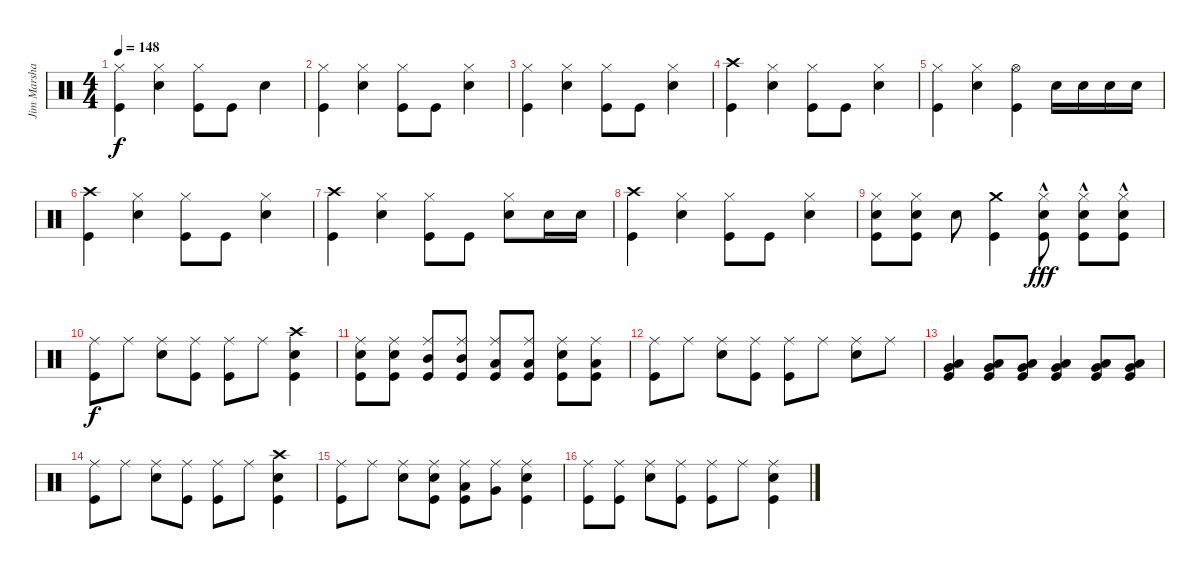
\track ("Jim Marshall Drums" "Jim Marsha") {instrument percussion}
\staff {score}
\articulation defaults
\ts (4 4)
\tempo 148
\clef neutral
\ks c
("Hi-Hat (closed)" "Kick (hit)").4{dy f} ("Hi-Hat (closed)" "Snare (hit) 2").4 ("Hi-Hat (closed)" "Kick (hit)").8 "Kick (hit)".8 "Snare (hit) 2".4 |
("Hi-Hat (closed)" "Kick (hit)").4 ("Hi-Hat (closed)" "Snare (hit) 2").4 ("Hi-Hat (closed)" "Kick (hit)").8 "Kick (hit)".8 ("Hi-Hat (closed)" "Snare (hit) 2").4 |
("Hi-Hat (closed)" "Kick (hit)").4 ("Hi-Hat (closed)" "Snare (hit) 2").4 ("Hi-Hat (closed)" "Kick (hit)").8 "Kick (hit)".8 ("Hi-Hat (closed)" "Snare (hit) 2").4 |
("Crash high (hit)" "Kick (hit)").4 ("Hi-Hat (closed)" "Snare (hit) 2").4 ("Hi-Hat (closed)" "Kick (hit)").8 "Kick (hit)".8 ("Hi-Hat (closed)" "Snare (hit) 2").4 |
("Hi-Hat (closed)" "Kick (hit)").4 ("Hi-Hat (closed)" "Snare (hit) 2").4 ("Hi-Hat (open)" "Kick (hit)").4 "Snare (hit) 2".16 "Snare (hit) 2".16 "Snare (hit) 2".16 "Snare (hit) 2".16 |
("Crash high (hit)" "Kick (hit)").4 ("Hi-Hat (closed)" "Snare (hit) 2").4 ("Hi-Hat (closed)" "Kick (hit)").8 "Kick (hit)".8 ("Hi-Hat (closed)" "Snare (hit) 2").4 |
("Crash high (hit)" "Kick (hit)").4 ("Hi-Hat (closed)" "Snare (hit) 2").4 ("Hi-Hat (closed)" "Kick (hit)").8 "Kick (hit)".8 ("Hi-Hat (closed)" "Snare (hit) 2").8 "Snare (hit) 2".16 "Snare (hit) 2".16 |
("Crash high (hit)" "Kick (hit)").4 ("Hi-Hat (closed)" "Snare (hit) 2").4 ("Hi-Hat (closed)" "Kick (hit)").8 "Kick (hit)".8 ("Hi-Hat (closed)" "Snare (hit) 2").4 |
("Hi-Hat (closed)" "Snare (hit) 2" "Kick (hit)").8 ("Hi-Hat (closed)" "Snare (hit) 2" "Kick (hit)").8 "Snare (hit) 2".8 ("Crash medium (hit)" "Kick (hit)").4 ("Hi-Hat (closed)"{hac} "Snare (hit) 2" "Kick (hit)").8{dy fff} ("Hi-Hat (closed)"{hac} "Snare (hit) 2" "Kick (hit)").8 ("Hi-Hat (closed)"{hac} "Snare (hit) 2" "Kick (hit)").8 |
("Ride (middle)" "Kick (hit)").8{dy f} "Ride (middle)".8 ("Ride (middle)" "Snare (hit) 2").8 ("Ride (middle)" "Kick (hit)").8 ("Ride (middle)" "Kick (hit)").8 "Ride (middle)".8 ("Crash high (hit)" "Snare (hit) 2" "Kick (hit)").4 |
("Ride (middle)" "Snare (hit) 2" "Kick (hit)").8 ("Ride (middle)" "Snare (hit) 2" "Kick (hit)").8 ("Ride (middle)" "Mid Tom (hit)" "Kick (hit)").8 ("Ride (middle)" "Mid Tom (hit)" "Kick (hit)").8 ("Ride (middle)" "Low Tom (hit)" "Kick (hit)").8 ("Ride (middle)" "Low Tom (hit)" "Kick (hit)").8 ("Ride (middle)" "Snare (hit) 2" "Kick (hit)").8 ("Ride (middle)" "Low Tom (hit)" "Kick (hit)").8 |
("Ride (middle)" "Kick (hit)").8 "Ride (middle)".8 ("Ride (middle)" "Snare (hit) 2").8 ("Ride (middle)" "Kick (hit)").8 ("Ride (middle)" "Kick (hit)").8 "Ride (middle)".8 ("Ride (middle)" "Snare (hit) 2").8 "Ride (middle)".8 |
("Very Low Tom (hit)" "Low Floor Tom (hit)" "Kick (hit)").4 ("Very Low Tom (hit)" "Low Floor Tom (hit)" "Kick (hit)").8 ("Very Low Tom (hit)" "Low Floor Tom (hit)" "Kick (hit)").8 ("Very Low Tom (hit)" "Low Floor Tom (hit)" "Kick (hit)").4 ("Very Low Tom (hit)" "Low Floor Tom (hit)" "Kick (hit)").8 ("Very Low Tom (hit)" "Low Floor Tom (hit)" "Kick (hit)").8 |
("Ride (middle)" "Kick (hit)").8 "Ride (middle)".8 ("Ride (middle)" "Snare (hit) 2").8 ("Ride (middle)" "Kick (hit)").8 ("Ride (middle)" "Kick (hit)").8 "Ride (middle)".8 ("Crash high (hit)" "Snare (hit) 2" "Kick (hit)").4 |
("Ride (middle)" "Kick (hit)").8 "Ride (middle)".8 ("Ride (middle)" "Snare (hit) 2").8 ("Ride (middle)" "Snare (hit) 2" "Kick (hit)").8 ("Ride (middle)" "Low Tom (hit)" "Kick (hit)").8 ("Ride (middle)" "Very Low Tom (hit)").8 ("Ride (middle)" "Snare (hit) 2" "Kick (hit)").4 |
("Ride (middle)" "Kick (hit)").8 ("Ride (middle)" "Kick (hit)").8 ("Ride (middle)" "Snare (hit) 2").8 ("Ride (middle)" "Kick (hit)").8 ("Ride (middle)" "Kick (hit)").8 "Ride (middle)".8 ("Ride (middle)" "Snare (hit) 2" "Kick (hit)").4
